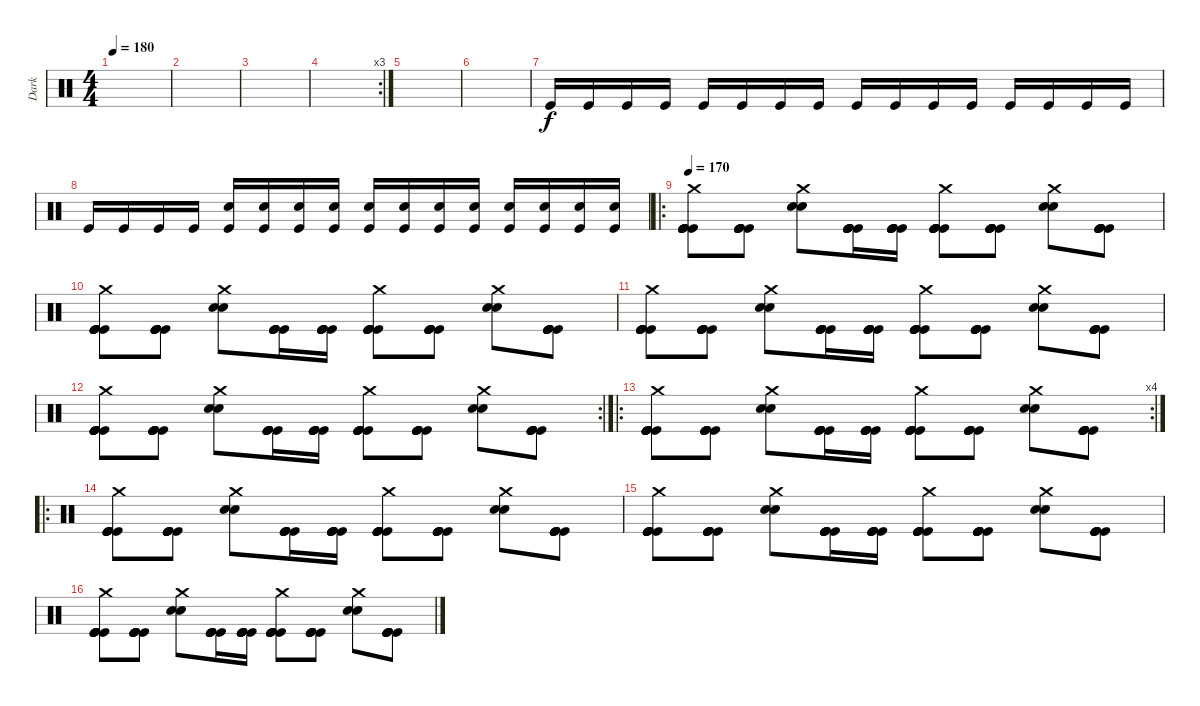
\track ("Dark" "Dark") {instrument percussion}
\staff {score}
\articulation defaults
\ts (4 4)
\tempo 180
\clef neutral
\ks c
|
|
|
\rc 3
|
|
|
"Kick (hit)".16 "Kick (hit)".16 "Kick (hit)".16 "Kick (hit)".16 "Kick (hit)".16 "Kick (hit)".16 "Kick (hit)".16 "Kick (hit)".16 "Kick (hit)".16 "Kick (hit)".16 "Kick (hit)".16 "Kick (hit)".16 "Kick (hit)".16 "Kick (hit)".16 "Kick (hit)".16 "Kick (hit)".16 |
"Kick (hit)".16 "Kick (hit)".16 "Kick (hit)".16 "Kick (hit)".16 ("Snare (hit) 2" "Kick (hit)").16 ("Snare (hit) 2" "Kick (hit)").16 ("Snare (hit) 2" "Kick (hit)").16 ("Snare (hit) 2" "Kick (hit)").16 ("Snare (hit) 2" "Kick (hit)").16 ("Snare (hit) 2" "Kick (hit)").16 ("Snare (hit) 2" "Kick (hit)").16 ("Snare (hit) 2" "Kick (hit)").16 ("Snare (hit) 2" "Kick (hit)").16 ("Snare (hit) 2" "Kick (hit)").16 ("Snare (hit) 2" "Kick (hit)").16 ("Snare (hit) 2" "Kick (hit)").16 |
\ro
\tempo 170
("Kick (hit)" "Kick (hit)" "Kick (hit)" "Kick (hit)" "Crash medium (hit)" "Kick (hit)").8 ("Kick (hit)" "Kick (hit)" "Kick (hit)" "Kick (hit)" "Kick (hit)").8 ("Snare (hit) 2" "Crash medium (hit)" "Snare (hit) 2").8 ("Kick (hit)" "Kick (hit)" "Kick (hit)" "Kick (hit)" "Kick (hit)").16 ("Kick (hit)" "Kick (hit)" "Kick (hit)" "Kick (hit)" "Kick (hit)").16 ("Kick (hit)" "Kick (hit)" "Kick (hit)" "Kick (hit)" "Crash medium (hit)" "Kick (hit)").8 ("Kick (hit)" "Kick (hit)" "Kick (hit)" "Kick (hit)" "Kick (hit)").8 ("Snare (hit) 2" "Crash medium (hit)" "Snare (hit) 2").8 ("Kick (hit)" "Kick (hit)" "Kick (hit)" "Kick (hit)" "Kick (hit)").8 |
("Kick (hit)" "Kick (hit)" "Kick (hit)" "Kick (hit)" "Crash medium (hit)" "Kick (hit)").8 ("Kick (hit)" "Kick (hit)" "Kick (hit)" "Kick (hit)" "Kick (hit)").8 ("Snare (hit) 2" "Crash medium (hit)" "Snare (hit) 2").8 ("Kick (hit)" "Kick (hit)" "Kick (hit)" "Kick (hit)" "Kick (hit)").16 ("Kick (hit)" "Kick (hit)" "Kick (hit)" "Kick (hit)" "Kick (hit)").16 ("Kick (hit)" "Kick (hit)" "Kick (hit)" "Kick (hit)" "Crash medium (hit)" "Kick (hit)").8 ("Kick (hit)" "Kick (hit)" "Kick (hit)" "Kick (hit)" "Kick (hit)").8 ("Snare (hit) 2" "Crash medium (hit)" "Snare (hit) 2").8 ("Kick (hit)" "Kick (hit)" "Kick (hit)" "Kick (hit)" "Kick (hit)").8 |
("Kick (hit)" "Kick (hit)" "Kick (hit)" "Kick (hit)" "Crash medium (hit)" "Kick (hit)").8 ("Kick (hit)" "Kick (hit)" "Kick (hit)" "Kick (hit)" "Kick (hit)").8 ("Snare (hit) 2" "Crash medium (hit)" "Snare (hit) 2").8 ("Kick (hit)" "Kick (hit)" "Kick (hit)" "Kick (hit)" "Kick (hit)").16 ("Kick (hit)" "Kick (hit)" "Kick (hit)" "Kick (hit)" "Kick (hit)").16 ("Kick (hit)" "Kick (hit)" "Kick (hit)" "Kick (hit)" "Crash medium (hit)" "Kick (hit)").8 ("Kick (hit)" "Kick (hit)" "Kick (hit)" "Kick (hit)" "Kick (hit)").8 ("Snare (hit) 2" "Crash medium (hit)" "Snare (hit) 2").8 ("Kick (hit)" "Kick (hit)" "Kick (hit)" "Kick (hit)" "Kick (hit)").8 |
\rc 2
("Kick (hit)" "Kick (hit)" "Kick (hit)" "Kick (hit)" "Crash medium (hit)" "Kick (hit)").8 ("Kick (hit)" "Kick (hit)" "Kick (hit)" "Kick (hit)" "Kick (hit)").8 ("Snare (hit) 2" "Crash medium (hit)" "Snare (hit) 2").8 ("Kick (hit)" "Kick (hit)" "Kick (hit)" "Kick (hit)" "Kick (hit)").16 ("Kick (hit)" "Kick (hit)" "Kick (hit)" "Kick (hit)" "Kick (hit)").16 ("Kick (hit)" "Kick (hit)" "Kick (hit)" "Kick (hit)" "Crash medium (hit)" "Kick (hit)").8 ("Kick (hit)" "Kick (hit)" "Kick (hit)" "Kick (hit)" "Kick (hit)").8 ("Snare (hit) 2" "Crash medium (hit)" "Snare (hit) 2").8 ("Kick (hit)" "Kick (hit)" "Kick (hit)" "Kick (hit)" "Kick (hit)").8 |
\ro
\rc 4
("Kick (hit)" "Kick (hit)" "Kick (hit)" "Kick (hit)" "Crash medium (hit)" "Kick (hit)").8 ("Kick (hit)" "Kick (hit)" "Kick (hit)" "Kick (hit)" "Kick (hit)").8 ("Snare (hit) 2" "Crash medium (hit)" "Snare (hit) 2").8 ("Kick (hit)" "Kick (hit)" "Kick (hit)" "Kick (hit)" "Kick (hit)").16 ("Kick (hit)" "Kick (hit)" "Kick (hit)" "Kick (hit)" "Kick (hit)").16 ("Kick (hit)" "Kick (hit)" "Kick (hit)" "Kick (hit)" "Crash medium (hit)" "Kick (hit)").8 ("Kick (hit)" "Kick (hit)" "Kick (hit)" "Kick (hit)" "Kick (hit)").8 ("Snare (hit) 2" "Crash medium (hit)" "Snare (hit) 2").8 ("Kick (hit)" "Kick (hit)" "Kick (hit)" "Kick (hit)" "Kick (hit)").8 |
\ro
("Kick (hit)" "Kick (hit)" "Kick (hit)" "Kick (hit)" "Crash medium (hit)" "Kick (hit)").8 ("Kick (hit)" "Kick (hit)" "Kick (hit)" "Kick (hit)" "Kick (hit)").8 ("Snare (hit) 2" "Crash medium (hit)" "Snare (hit) 2").8 ("Kick (hit)" "Kick (hit)" "Kick (hit)" "Kick (hit)" "Kick (hit)").16 ("Kick (hit)" "Kick (hit)" "Kick (hit)" "Kick (hit)" "Kick (hit)").16 ("Kick (hit)" "Kick (hit)" "Kick (hit)" "Kick (hit)" "Crash medium (hit)" "Kick (hit)").8 ("Kick (hit)" "Kick (hit)" "Kick (hit)" "Kick (hit)" "Kick (hit)").8 ("Snare (hit) 2" "Crash medium (hit)" "Snare (hit) 2").8 ("Kick (hit)" "Kick (hit)" "Kick (hit)" "Kick (hit)" "Kick (hit)").8 |
("Kick (hit)" "Kick (hit)" "Kick (hit)" "Kick (hit)" "Crash medium (hit)" "Kick (hit)").8 ("Kick (hit)" "Kick (hit)" "Kick (hit)" "Kick (hit)" "Kick (hit)").8 ("Snare (hit) 2" "Crash medium (hit)" "Snare (hit) 2").8 ("Kick (hit)" "Kick (hit)" "Kick (hit)" "Kick (hit)" "Kick (hit)").16 ("Kick (hit)" "Kick (hit)" "Kick (hit)" "Kick (hit)" "Kick (hit)").16 ("Kick (hit)" "Kick (hit)" "Kick (hit)" "Kick (hit)" "Crash medium (hit)" "Kick (hit)").8 ("Kick (hit)" "Kick (hit)" "Kick (hit)" "Kick (hit)" "Kick (hit)").8 ("Snare (hit) 2" "Crash medium (hit)" "Snare (hit) 2").8 ("Kick (hit)" "Kick (hit)" "Kick (hit)" "Kick (hit)" "Kick (hit)").8 |
("Kick (hit)" "Kick (hit)" "Kick (hit)" "Kick (hit)" "Crash medium (hit)" "Kick (hit)").8 ("Kick (hit)" "Kick (hit)" "Kick (hit)" "Kick (hit)" "Kick (hit)").8 ("Snare (hit) 2" "Crash medium (hit)" "Snare (hit) 2").8 ("Kick (hit)" "Kick (hit)" "Kick (hit)" "Kick (hit)" "Kick (hit)").16 ("Kick (hit)" "Kick (hit)" "Kick (hit)" "Kick (hit)" "Kick (hit)").16 ("Kick (hit)" "Kick (hit)" "Kick (hit)" "Kick (hit)" "Crash medium (hit)" "Kick (hit)").8 ("Kick (hit)" "Kick (hit)" "Kick (hit)" "Kick (hit)" "Kick (hit)").8 ("Snare (hit) 2" "Crash medium (hit)" "Snare (hit) 2").8 ("Kick (hit)" "Kick (hit)" "Kick (hit)" "Kick (hit)" "Kick (hit)").8
